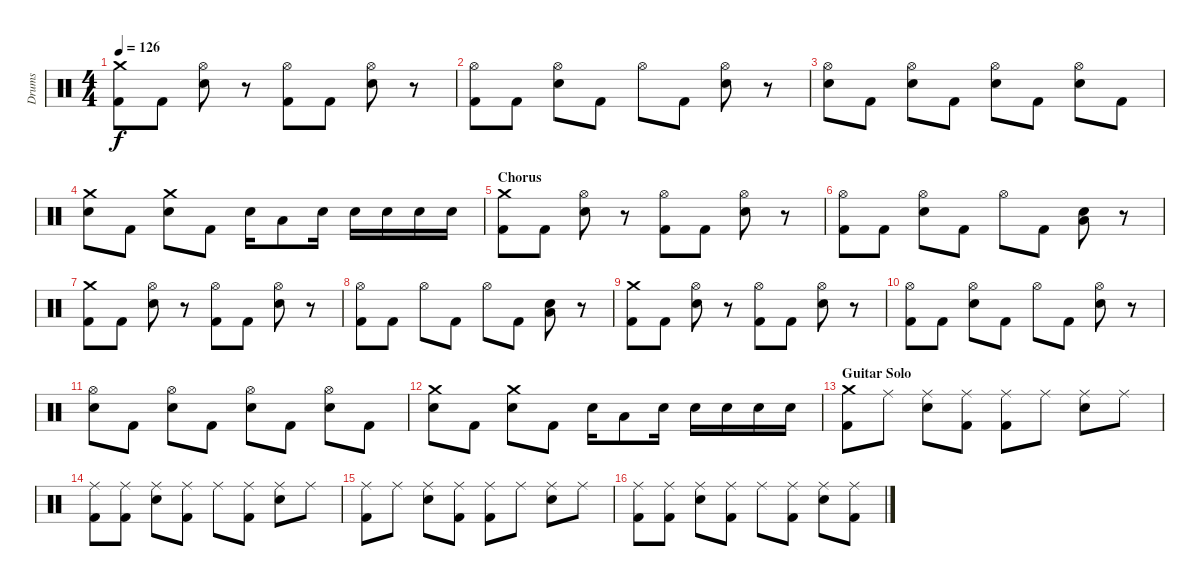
\track ("Drums" "Drums") {instrument percussion}
\staff {score}
\articulation defaults
\ts (4 4)
\tempo 126
\clef neutral
\ks c
("Crash medium (hit)" "Kick (hit) 2").8{dy f} "Kick (hit) 2".8 ("Hi-Hat (open)" "Snare (hit) 2").8 r.8 ("Hi-Hat (open)" "Kick (hit) 2").8 "Kick (hit) 2".8 ("Hi-Hat (open)" "Snare (hit) 2").8 r.8 |
("Hi-Hat (open)" "Kick (hit) 2").8 "Kick (hit) 2".8 ("Hi-Hat (open)" "Snare (hit) 2").8 "Kick (hit) 2".8 "Hi-Hat (open)".8 "Kick (hit) 2".8 ("Hi-Hat (open)" "Snare (hit) 2").8 r.8 |
("Hi-Hat (open)" "Snare (hit) 2").8 "Kick (hit) 2".8 ("Hi-Hat (open)" "Snare (hit) 2").8 "Kick (hit) 2".8 ("Hi-Hat (open)" "Snare (hit) 2").8 "Kick (hit) 2".8 ("Hi-Hat (open)" "Snare (hit) 2").8 "Kick (hit) 2".8 |
("Crash medium (hit)" "Snare (hit) 2").8 "Kick (hit) 2".8 ("Crash medium (hit)" "Snare (hit) 2").8 "Kick (hit) 2".8 "Snare (hit) 2".16 "Low Tom (hit)".8 "Snare (hit) 2".16 "Snare (hit) 2".16 "Snare (hit) 2".16 "Snare (hit) 2".16 "Snare (hit) 2".16 |
\section ("" "Chorus")
("Crash medium (hit)" "Kick (hit) 2").8 "Kick (hit) 2".8 ("Hi-Hat (open)" "Snare (hit) 2").8 r.8 ("Hi-Hat (open)" "Kick (hit) 2").8 "Kick (hit) 2".8 ("Hi-Hat (open)" "Snare (hit) 2").8 r.8 |
("Hi-Hat (open)" "Kick (hit) 2").8 "Kick (hit) 2".8 ("Hi-Hat (open)" "Snare (hit) 2").8 "Kick (hit) 2".8 "Hi-Hat (open)".8 "Kick (hit) 2".8 ("Snare (hit) 2" "Low Tom (hit)").8 r.8 |
("Crash medium (hit)" "Kick (hit) 2").8 "Kick (hit) 2".8 ("Hi-Hat (open)" "Snare (hit) 2").8 r.8 ("Hi-Hat (open)" "Kick (hit) 2").8 "Kick (hit) 2".8 ("Hi-Hat (open)" "Snare (hit) 2").8 r.8 |
("Hi-Hat (open)" "Kick (hit) 2").8 "Kick (hit) 2".8 "Hi-Hat (open)".8 "Kick (hit) 2".8 "Hi-Hat (open)".8 "Kick (hit) 2".8 ("Snare (hit) 2" "Low Tom (hit)").8 r.8 |
("Crash medium (hit)" "Kick (hit) 2").8 "Kick (hit) 2".8 ("Hi-Hat (open)" "Snare (hit) 2").8 r.8 ("Hi-Hat (open)" "Kick (hit) 2").8 "Kick (hit) 2".8 ("Hi-Hat (open)" "Snare (hit) 2").8 r.8 |
("Hi-Hat (open)" "Kick (hit) 2").8 "Kick (hit) 2".8 ("Hi-Hat (open)" "Snare (hit) 2").8 "Kick (hit) 2".8 "Hi-Hat (open)".8 "Kick (hit) 2".8 ("Hi-Hat (open)" "Snare (hit) 2").8 r.8 |
("Hi-Hat (open)" "Snare (hit) 2").8 "Kick (hit) 2".8 ("Hi-Hat (open)" "Snare (hit) 2").8 "Kick (hit) 2".8 ("Hi-Hat (open)" "Snare (hit) 2").8 "Kick (hit) 2".8 ("Hi-Hat (open)" "Snare (hit) 2").8 "Kick (hit) 2".8 |
("Crash medium (hit)" "Snare (hit) 2").8 "Kick (hit) 2".8 ("Crash medium (hit)" "Snare (hit) 2").8 "Kick (hit) 2".8 "Snare (hit) 2".16 "Low Tom (hit)".8 "Snare (hit) 2".16 "Snare (hit) 2".16 "Snare (hit) 2".16 "Snare (hit) 2".16 "Snare (hit) 2".16 |
\section ("" "Guitar Solo")
("Crash medium (hit)" "Kick (hit) 2").8 "Ride (middle)".8 ("Ride (middle)" "Snare (hit) 2").8 ("Ride (middle)" "Kick (hit) 2").8 ("Ride (middle)" "Kick (hit) 2").8 "Ride (middle)".8 ("Ride (middle)" "Snare (hit) 2").8 "Ride (middle)".8 |
("Ride (middle)" "Kick (hit) 2").8 ("Ride (middle)" "Kick (hit) 2").8 ("Ride (middle)" "Snare (hit) 2").8 ("Ride (middle)" "Kick (hit) 2").8 "Ride (middle)".8 ("Ride (middle)" "Kick (hit) 2").8 ("Ride (middle)" "Snare (hit) 2").8 "Ride (middle)".8 |
("Ride (middle)" "Kick (hit) 2").8 "Ride (middle)".8 ("Ride (middle)" "Snare (hit) 2").8 ("Ride (middle)" "Kick (hit) 2").8 ("Ride (middle)" "Kick (hit) 2").8 "Ride (middle)".8 ("Ride (middle)" "Snare (hit) 2").8 "Ride (middle)".8 |
("Ride (middle)" "Kick (hit) 2").8 ("Ride (middle)" "Kick (hit) 2").8 ("Ride (middle)" "Snare (hit) 2").8 ("Ride (middle)" "Kick (hit) 2").8 "Ride (middle)".8 ("Ride (middle)" "Kick (hit) 2").8 ("Ride (middle)" "Snare (hit) 2").8 ("Ride (middle)" "Kick (hit) 2").8
